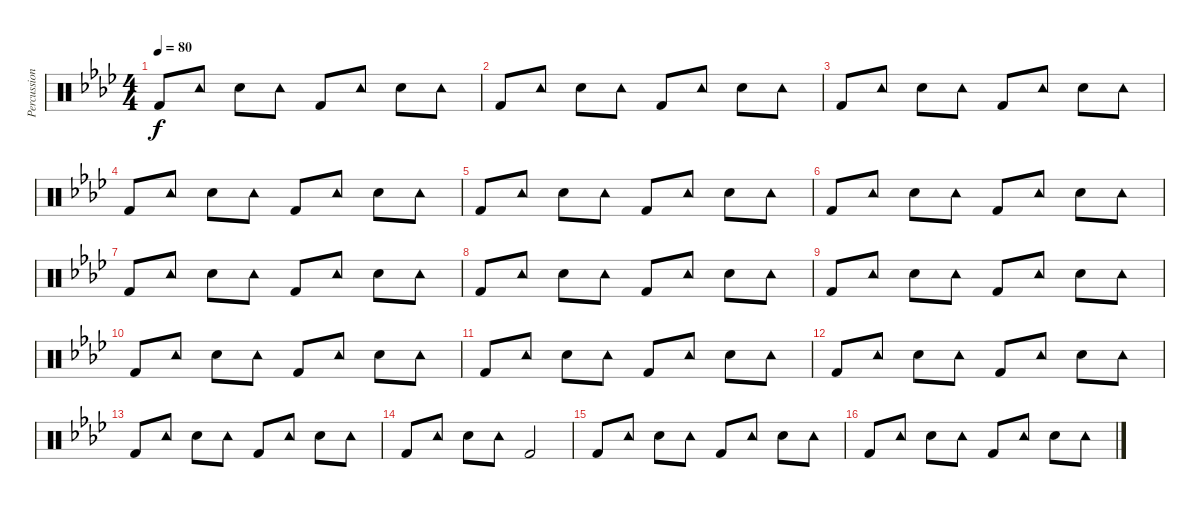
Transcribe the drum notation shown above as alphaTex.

\track ("Percussions" "Percussion") {instrument percussion}
\staff {score}
\articulation defaults
\ts (4 4)
\tempo 80
\clef neutral
\ks ab "Kick (hit) 2".8{dy f} "Tambourine (hit)".8 "Electric Snare (hit)".8 "Tambourine (hit)".8 "Kick (hit) 2".8 "Tambourine (hit)".8 "Electric Snare (hit)".8 "Tambourine (hit)".8
|
"Kick (hit) 2".8 "Tambourine (hit)".8 "Electric Snare (hit)".8 "Tambourine (hit)".8 "Kick (hit) 2".8 "Tambourine (hit)".8 "Electric Snare (hit)".8 "Tambourine (hit)".8 |
"Kick (hit) 2".8 "Tambourine (hit)".8 "Electric Snare (hit)".8 "Tambourine (hit)".8 "Kick (hit) 2".8 "Tambourine (hit)".8 "Electric Snare (hit)".8 "Tambourine (hit)".8 |
"Kick (hit) 2".8 "Tambourine (hit)".8 "Electric Snare (hit)".8 "Tambourine (hit)".8 "Kick (hit) 2".8 "Tambourine (hit)".8 "Electric Snare (hit)".8 "Tambourine (hit)".8 |
"Kick (hit) 2".8 "Tambourine (hit)".8 "Electric Snare (hit)".8 "Tambourine (hit)".8 "Kick (hit) 2".8 "Tambourine (hit)".8 "Electric Snare (hit)".8 "Tambourine (hit)".8 |
"Kick (hit) 2".8 "Tambourine (hit)".8 "Electric Snare (hit)".8 "Tambourine (hit)".8 "Kick (hit) 2".8 "Tambourine (hit)".8 "Electric Snare (hit)".8 "Tambourine (hit)".8 |
"Kick (hit) 2".8 "Tambourine (hit)".8 "Electric Snare (hit)".8 "Tambourine (hit)".8 "Kick (hit) 2".8 "Tambourine (hit)".8 "Electric Snare (hit)".8 "Tambourine (hit)".8 |
"Kick (hit) 2".8 "Tambourine (hit)".8 "Electric Snare (hit)".8 "Tambourine (hit)".8 "Kick (hit) 2".8 "Tambourine (hit)".8 "Electric Snare (hit)".8 "Tambourine (hit)".8 |
"Kick (hit) 2".8 "Tambourine (hit)".8 "Electric Snare (hit)".8 "Tambourine (hit)".8 "Kick (hit) 2".8 "Tambourine (hit)".8 "Electric Snare (hit)".8 "Tambourine (hit)".8 |
"Kick (hit) 2".8 "Tambourine (hit)".8 "Electric Snare (hit)".8 "Tambourine (hit)".8 "Kick (hit) 2".8 "Tambourine (hit)".8 "Electric Snare (hit)".8 "Tambourine (hit)".8 |
"Kick (hit) 2".8 "Tambourine (hit)".8 "Electric Snare (hit)".8 "Tambourine (hit)".8 "Kick (hit) 2".8 "Tambourine (hit)".8 "Electric Snare (hit)".8 "Tambourine (hit)".8 |
"Kick (hit) 2".8 "Tambourine (hit)".8 "Electric Snare (hit)".8 "Tambourine (hit)".8 "Kick (hit) 2".8 "Tambourine (hit)".8 "Electric Snare (hit)".8 "Tambourine (hit)".8 |
"Kick (hit) 2".8 "Tambourine (hit)".8 "Electric Snare (hit)".8 "Tambourine (hit)".8 "Kick (hit) 2".8 "Tambourine (hit)".8 "Electric Snare (hit)".8 "Tambourine (hit)".8 |
"Kick (hit) 2".8 "Tambourine (hit)".8 "Electric Snare (hit)".8 "Tambourine (hit)".8 "Kick (hit) 2".2 |
"Kick (hit) 2".8 "Tambourine (hit)".8 "Electric Snare (hit)".8 "Tambourine (hit)".8 "Kick (hit) 2".8 "Tambourine (hit)".8 "Electric Snare (hit)".8 "Tambourine (hit)".8 |
"Kick (hit) 2".8 "Tambourine (hit)".8 "Electric Snare (hit)".8 "Tambourine (hit)".8 "Kick (hit) 2".8 "Tambourine (hit)".8 "Electric Snare (hit)".8 "Tambourine (hit)".8
